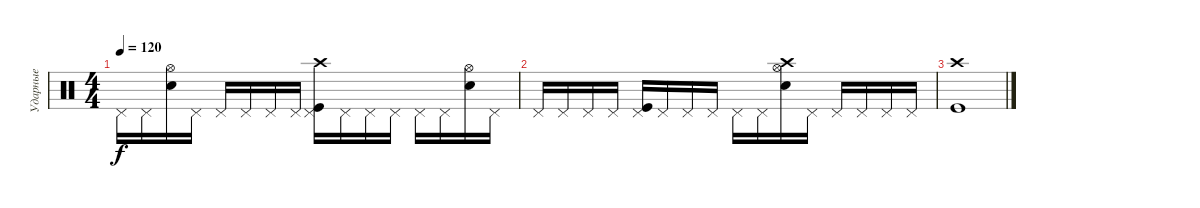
\track ("Ударные" "Ударные") {instrument percussion}
\staff {score}
\articulation defaults
\ts (4 4)
\tempo 120
\clef neutral
\ks c "Pedal Hi-Hat (hit)".16{dy f} "Pedal Hi-Hat (hit)".16
("Hi-Hat (open)" "Electric Snare (hit)").16 "Pedal Hi-Hat (hit)".16 "Pedal Hi-Hat (hit)".16 "Pedal Hi-Hat (hit)".16 "Pedal Hi-Hat (hit)".16 "Pedal Hi-Hat (hit)".16 ("Pedal Hi-Hat (hit)" "Kick (hit)" "Crash high (hit)").16 "Pedal Hi-Hat (hit)".16 "Pedal Hi-Hat (hit)".16 "Pedal Hi-Hat (hit)".16 "Pedal Hi-Hat (hit)".16 "Pedal Hi-Hat (hit)".16 ("Hi-Hat (open)" "Electric Snare (hit)").16 "Pedal Hi-Hat (hit)".16 |
"Pedal Hi-Hat (hit)".16 "Pedal Hi-Hat (hit)".16 "Pedal Hi-Hat (hit)".16 "Pedal Hi-Hat (hit)".16 ("Pedal Hi-Hat (hit)" "Kick (hit)").16 "Pedal Hi-Hat (hit)".16 "Pedal Hi-Hat (hit)".16 "Pedal Hi-Hat (hit)".16 "Pedal Hi-Hat (hit)".16 "Pedal Hi-Hat (hit)".16 ("Hi-Hat (open)" "Electric Snare (hit)" "Crash high (hit)").16 "Pedal Hi-Hat (hit)".16 "Pedal Hi-Hat (hit)".16 "Pedal Hi-Hat (hit)".16 "Pedal Hi-Hat (hit)".16 "Pedal Hi-Hat (hit)".16 |
("Crash high (hit)" "Kick (hit)").1
